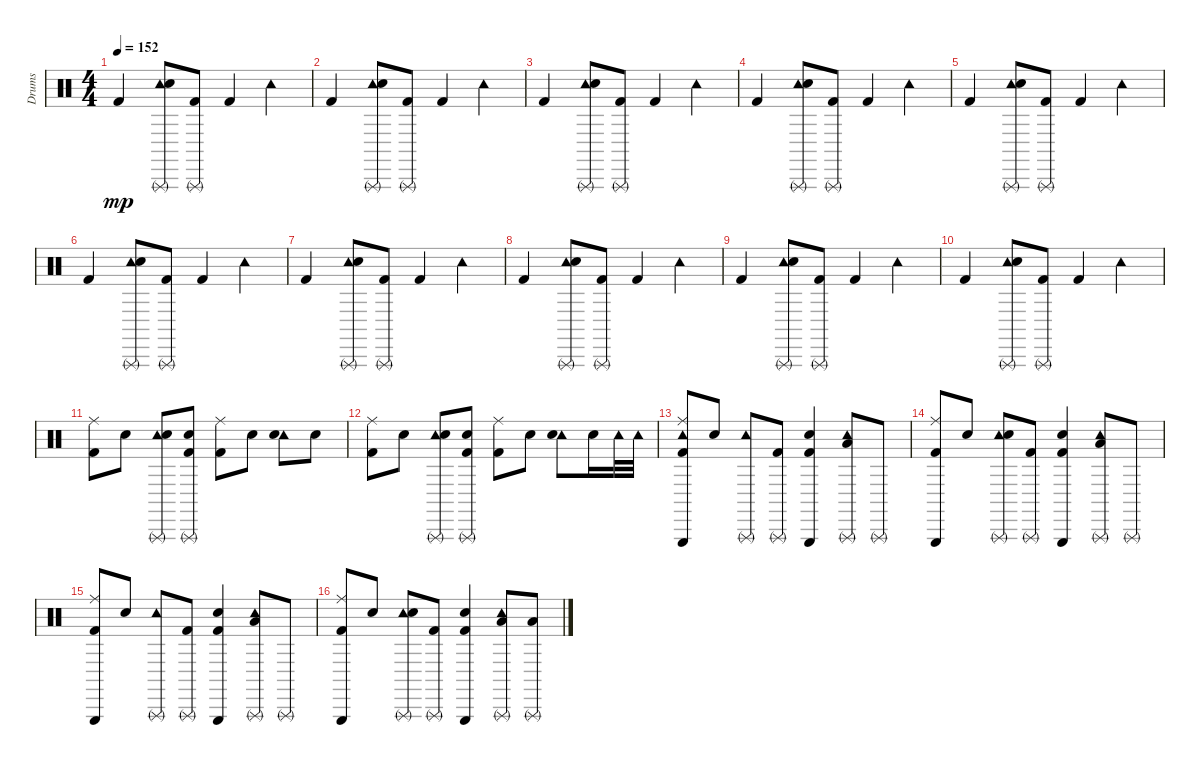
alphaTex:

\track ("Drums" "Drums") {instrument percussion}
\staff {score}
\articulation defaults
\ts (4 4)
\tempo 152
\clef neutral
\ks c "Kick (hit) 2".4{dy mp}
("Triangle (rnute)" "Tambourine (hit)" "Snare (hit) 2").8 ("Triangle (rnute)" "Kick (hit) 2").8 "Kick (hit) 2".4 "Tambourine (hit)".4 |
"Kick (hit) 2".4 ("Triangle (rnute)" "Tambourine (hit)" "Snare (hit) 2").8 ("Triangle (rnute)" "Kick (hit) 2").8 "Kick (hit) 2".4 "Tambourine (hit)".4 |
"Kick (hit) 2".4 ("Triangle (rnute)" "Tambourine (hit)" "Snare (hit) 2").8 ("Triangle (rnute)" "Kick (hit) 2").8 "Kick (hit) 2".4 "Tambourine (hit)".4 |
"Kick (hit) 2".4 ("Triangle (rnute)" "Tambourine (hit)" "Snare (hit) 2").8 ("Triangle (rnute)" "Kick (hit) 2").8 "Kick (hit) 2".4 "Tambourine (hit)".4 |
"Kick (hit) 2".4 ("Triangle (rnute)" "Tambourine (hit)" "Snare (hit) 2").8 ("Triangle (rnute)" "Kick (hit) 2").8 "Kick (hit) 2".4 "Tambourine (hit)".4 |
"Kick (hit) 2".4 ("Triangle (rnute)" "Tambourine (hit)" "Snare (hit) 2").8 ("Triangle (rnute)" "Kick (hit) 2").8 "Kick (hit) 2".4 "Tambourine (hit)".4 |
"Kick (hit) 2".4 ("Triangle (rnute)" "Tambourine (hit)" "Snare (hit) 2").8 ("Triangle (rnute)" "Kick (hit) 2").8 "Kick (hit) 2".4 "Tambourine (hit)".4 |
"Kick (hit) 2".4 ("Triangle (rnute)" "Tambourine (hit)" "Snare (hit) 2").8 ("Triangle (rnute)" "Kick (hit) 2").8 "Kick (hit) 2".4 "Tambourine (hit)".4 |
"Kick (hit) 2".4 ("Triangle (rnute)" "Tambourine (hit)" "Snare (hit) 2").8 ("Triangle (rnute)" "Kick (hit) 2").8 "Kick (hit) 2".4 "Tambourine (hit)".4 |
"Kick (hit) 2".4 ("Triangle (rnute)" "Tambourine (hit)" "Snare (hit) 2").8 ("Triangle (rnute)" "Kick (hit) 2").8 "Kick (hit) 2".4 "Tambourine (hit)".4 |
("Ride (middle)" "Kick (hit) 2").8 "Snare (hit) 2".8 ("Triangle (rnute)" "Tambourine (hit)" "Snare (hit) 2").8 ("Triangle (rnute)" "Kick (hit) 2" "Snare (hit) 2").8 ("Ride (middle)" "Kick (hit) 2").8 "Snare (hit) 2".8 ("Tambourine (hit)" "Snare (hit) 2").8 "Snare (hit) 2".8 |
("Ride (middle)" "Kick (hit) 2").8 "Snare (hit) 2".8 ("Triangle (rnute)" "Tambourine (hit)" "Snare (hit) 2").8 ("Triangle (rnute)" "Kick (hit) 2" "Snare (hit) 2").8 ("Ride (middle)" "Kick (hit) 2").8 "Snare (hit) 2".8 ("Tambourine (hit)" "Snare (hit) 2").8 "Snare (hit) 2".16 "Tambourine (hit)".32 "Tambourine (hit)".32 |
("Triangle (hit)" "Tambourine (hit)" "Ride (middle)" "Kick (hit) 2").8 "Snare (hit) 2".8 ("Triangle (rnute)" "Tambourine (hit)").8 ("Triangle (rnute)" "Kick (hit) 2").8 ("Triangle (hit)" "Kick (hit) 2" "Snare (hit) 2").4 ("Tambourine (hit)" "Low Tom (hit)" "Triangle (rnute)").8 "Triangle (rnute)".8 |
("Triangle (hit)" "Ride (middle)" "Kick (hit) 2").8 "Snare (hit) 2".8 ("Triangle (rnute)" "Tambourine (hit)" "Snare (hit) 2").8 ("Triangle (rnute)" "Kick (hit) 2").8 ("Triangle (hit)" "Kick (hit) 2" "Snare (hit) 2").4 ("Tambourine (hit)" "Low Tom (hit)" "Triangle (rnute)").8 "Triangle (rnute)".8 |
("Triangle (hit)" "Ride (middle)" "Kick (hit) 2").8 "Snare (hit) 2".8 ("Triangle (rnute)" "Tambourine (hit)").8 ("Triangle (rnute)" "Kick (hit) 2").8 ("Triangle (hit)" "Kick (hit) 2" "Snare (hit) 2").4 ("Tambourine (hit)" "Low Tom (hit)" "Triangle (rnute)").8 "Triangle (rnute)".8 |
("Triangle (hit)" "Ride (middle)" "Kick (hit) 2").8 "Snare (hit) 2".8 ("Triangle (rnute)" "Tambourine (hit)" "Snare (hit) 2").8 ("Triangle (rnute)" "Kick (hit) 2").8 ("Triangle (hit)" "Kick (hit) 2" "Snare (hit) 2").4 ("Tambourine (hit)" "Triangle (rnute)" "Low Tom (hit)").8 ("Low Tom (hit)" "Triangle (rnute)").8
